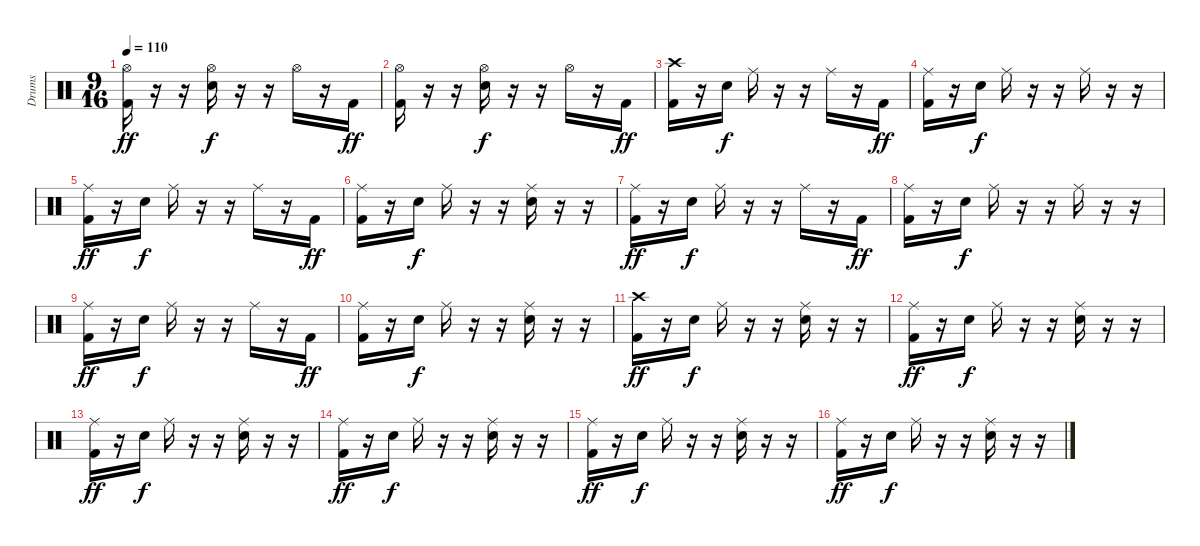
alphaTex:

\track ("Drums" "Drums") {instrument percussion}
\staff {score}
\articulation defaults
\ts (9 16)
\tempo 110
\clef neutral
\ks c
("Hi-Hat (open)" "Kick (hit) 2").16{dy ff} r.16 r.16 ("Hi-Hat (open)" "Snare (hit) 2").16{dy f} r.16 r.16 "Hi-Hat (open)".16 r.16 "Kick (hit) 2".16{dy ff} |
("Hi-Hat (open)" "Kick (hit) 2").16 r.16 r.16 ("Hi-Hat (open)" "Snare (hit) 2").16{dy f} r.16 r.16 "Hi-Hat (open)".16 r.16 "Kick (hit) 2".16{dy ff} |
("Crash high (hit)" "Kick (hit) 2").16 r.16 "Snare (hit) 2".16{dy f} "Ride (middle)".16 r.16 r.16 "Ride (middle)".16 r.16 "Kick (hit) 2".16{dy ff} |
("Ride (middle)" "Kick (hit) 2").16 r.16 "Snare (hit) 2".16{dy f} "Ride (middle)".16 r.16 r.16 "Ride (middle)".16 r.16 r.16 |
("Ride (middle)" "Kick (hit) 2").16{dy ff} r.16 "Snare (hit) 2".16{dy f} "Ride (middle)".16 r.16 r.16 "Ride (middle)".16 r.16 "Kick (hit) 2".16{dy ff} |
("Ride (middle)" "Kick (hit) 2").16 r.16 "Snare (hit) 2".16{dy f} "Ride (middle)".16 r.16 r.16 ("Ride (middle)" "Snare (hit) 2").16 r.16 r.16 |
("Ride (middle)" "Kick (hit) 2").16{dy ff} r.16 "Snare (hit) 2".16{dy f} "Ride (middle)".16 r.16 r.16 "Ride (middle)".16 r.16 "Kick (hit) 2".16{dy ff} |
("Ride (middle)" "Kick (hit) 2").16 r.16 "Snare (hit) 2".16{dy f} "Ride (middle)".16 r.16 r.16 "Ride (middle)".16 r.16 r.16 |
("Ride (middle)" "Kick (hit) 2").16{dy ff} r.16 "Snare (hit) 2".16{dy f} "Ride (middle)".16 r.16 r.16 "Ride (middle)".16 r.16 "Kick (hit) 2".16{dy ff} |
("Ride (middle)" "Kick (hit) 2").16 r.16 "Snare (hit) 2".16{dy f} "Ride (middle)".16 r.16 r.16 ("Ride (middle)" "Snare (hit) 2").16 r.16 r.16 |
("Crash high (hit)" "Kick (hit) 2").16{dy ff} r.16 "Snare (hit) 2".16{dy f} "Ride (middle)".16 r.16 r.16 ("Ride (middle)" "Snare (hit) 2").16 r.16 r.16 |
("Ride (middle)" "Kick (hit) 2").16{dy ff} r.16 "Snare (hit) 2".16{dy f} "Ride (middle)".16 r.16 r.16 ("Ride (middle)" "Snare (hit) 2").16 r.16 r.16 |
("Ride (middle)" "Kick (hit) 2").16{dy ff} r.16 "Snare (hit) 2".16{dy f} "Ride (middle)".16 r.16 r.16 ("Ride (middle)" "Snare (hit) 2").16 r.16 r.16 |
("Ride (middle)" "Kick (hit) 2").16{dy ff} r.16 "Snare (hit) 2".16{dy f} "Ride (middle)".16 r.16 r.16 ("Ride (middle)" "Snare (hit) 2").16 r.16 r.16 |
("Ride (middle)" "Kick (hit) 2").16{dy ff} r.16 "Snare (hit) 2".16{dy f} "Ride (middle)".16 r.16 r.16 ("Ride (middle)" "Snare (hit) 2").16 r.16 r.16 |
("Ride (middle)" "Kick (hit) 2").16{dy ff} r.16 "Snare (hit) 2".16{dy f} "Ride (middle)".16 r.16 r.16 ("Ride (middle)" "Snare (hit) 2").16 r.16 r.16
